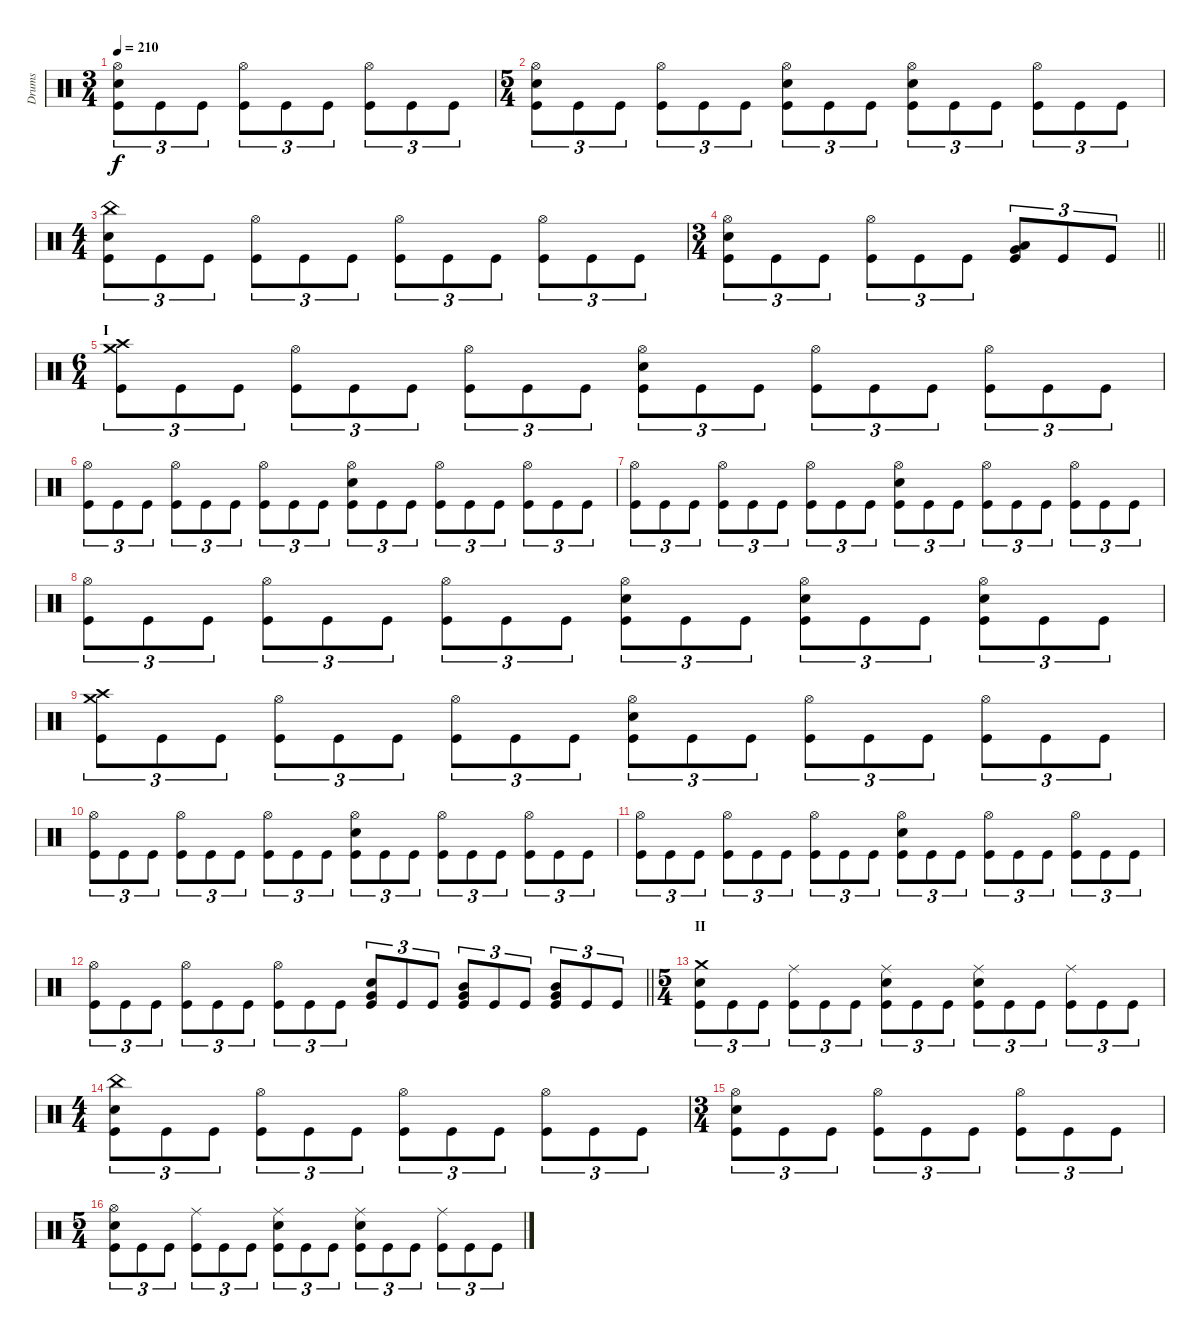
\track ("Drums" "Drums") {instrument percussion}
\staff {score}
\articulation defaults
\ts (3 4)
\tempo 210
\clef neutral
\ks c
("Kick (hit)" "Electric Snare (hit)" "Hi-Hat (open)").8{tu (3 2) dy f} "Kick (hit)".8{tu (3 2)} "Kick (hit)".8{tu (3 2)} ("Kick (hit)" "Hi-Hat (open)").8{tu (3 2)} "Kick (hit)".8{tu (3 2)} "Kick (hit)".8{tu (3 2)} ("Kick (hit)" "Hi-Hat (open)").8{tu (3 2)} "Kick (hit)".8{tu (3 2)} "Kick (hit)".8{tu (3 2)} |
\ts (5 4)
("Kick (hit)" "Electric Snare (hit)" "Hi-Hat (open)").8{tu (3 2)} "Kick (hit)".8{tu (3 2)} "Kick (hit)".8{tu (3 2)} ("Kick (hit)" "Hi-Hat (open)").8{tu (3 2)} "Kick (hit)".8{tu (3 2)} "Kick (hit)".8{tu (3 2)} ("Kick (hit)" "Electric Snare (hit)" "Hi-Hat (open)").8{tu (3 2)} "Kick (hit)".8{tu (3 2)} "Kick (hit)".8{tu (3 2)} ("Kick (hit)" "Electric Snare (hit)" "Hi-Hat (open)").8{tu (3 2)} "Kick (hit)".8{tu (3 2)} "Kick (hit)".8{tu (3 2)} ("Kick (hit)" "Hi-Hat (open)").8{tu (3 2)} "Kick (hit)".8{tu (3 2)} "Kick (hit)".8{tu (3 2)} |
\ts (4 4)
("Kick (hit)" "Electric Snare (hit)" "China (hit)").8{tu (3 2)} "Kick (hit)".8{tu (3 2)} "Kick (hit)".8{tu (3 2)} ("Kick (hit)" "Hi-Hat (open)").8{tu (3 2)} "Kick (hit)".8{tu (3 2)} "Kick (hit)".8{tu (3 2)} ("Kick (hit)" "Hi-Hat (open)").8{tu (3 2)} "Kick (hit)".8{tu (3 2)} "Kick (hit)".8{tu (3 2)} ("Kick (hit)" "Hi-Hat (open)").8{tu (3 2)} "Kick (hit)".8{tu (3 2)} "Kick (hit)".8{tu (3 2)} |
\ts (3 4)
\barLineRight lightlight
("Kick (hit)" "Electric Snare (hit)" "Hi-Hat (open)").8{tu (3 2)} "Kick (hit)".8{tu (3 2)} "Kick (hit)".8{tu (3 2)} ("Kick (hit)" "Hi-Hat (open)").8{tu (3 2)} "Kick (hit)".8{tu (3 2)} "Kick (hit)".8{tu (3 2)} ("Kick (hit)" "Very Low Tom (hit)" "Low Tom (hit)").8{tu (3 2)} "Kick (hit)".8{tu (3 2)} "Kick (hit)".8{tu (3 2)} |
\ts (6 4)
\section ("" "I")
("Kick (hit)" "Crash high (hit)" "Crash medium (hit)").8{tu (3 2)} "Kick (hit)".8{tu (3 2)} "Kick (hit)".8{tu (3 2)} ("Kick (hit)" "Hi-Hat (open)").8{tu (3 2)} "Kick (hit)".8{tu (3 2)} "Kick (hit)".8{tu (3 2)} ("Kick (hit)" "Hi-Hat (open)").8{tu (3 2)} "Kick (hit)".8{tu (3 2)} "Kick (hit)".8{tu (3 2)} ("Kick (hit)" "Electric Snare (hit)" "Hi-Hat (open)").8{tu (3 2)} "Kick (hit)".8{tu (3 2)} "Kick (hit)".8{tu (3 2)} ("Kick (hit)" "Hi-Hat (open)").8{tu (3 2)} "Kick (hit)".8{tu (3 2)} "Kick (hit)".8{tu (3 2)} ("Kick (hit)" "Hi-Hat (open)").8{tu (3 2)} "Kick (hit)".8{tu (3 2)} "Kick (hit)".8{tu (3 2)} |
("Kick (hit)" "Hi-Hat (open)").8{tu (3 2)} "Kick (hit)".8{tu (3 2)} "Kick (hit)".8{tu (3 2)} ("Kick (hit)" "Hi-Hat (open)").8{tu (3 2)} "Kick (hit)".8{tu (3 2)} "Kick (hit)".8{tu (3 2)} ("Kick (hit)" "Hi-Hat (open)").8{tu (3 2)} "Kick (hit)".8{tu (3 2)} "Kick (hit)".8{tu (3 2)} ("Kick (hit)" "Electric Snare (hit)" "Hi-Hat (open)").8{tu (3 2)} "Kick (hit)".8{tu (3 2)} "Kick (hit)".8{tu (3 2)} ("Kick (hit)" "Hi-Hat (open)").8{tu (3 2)} "Kick (hit)".8{tu (3 2)} "Kick (hit)".8{tu (3 2)} ("Kick (hit)" "Hi-Hat (open)").8{tu (3 2)} "Kick (hit)".8{tu (3 2)} "Kick (hit)".8{tu (3 2)} |
("Kick (hit)" "Hi-Hat (open)").8{tu (3 2)} "Kick (hit)".8{tu (3 2)} "Kick (hit)".8{tu (3 2)} ("Kick (hit)" "Hi-Hat (open)").8{tu (3 2)} "Kick (hit)".8{tu (3 2)} "Kick (hit)".8{tu (3 2)} ("Kick (hit)" "Hi-Hat (open)").8{tu (3 2)} "Kick (hit)".8{tu (3 2)} "Kick (hit)".8{tu (3 2)} ("Kick (hit)" "Electric Snare (hit)" "Hi-Hat (open)").8{tu (3 2)} "Kick (hit)".8{tu (3 2)} "Kick (hit)".8{tu (3 2)} ("Kick (hit)" "Hi-Hat (open)").8{tu (3 2)} "Kick (hit)".8{tu (3 2)} "Kick (hit)".8{tu (3 2)} ("Kick (hit)" "Hi-Hat (open)").8{tu (3 2)} "Kick (hit)".8{tu (3 2)} "Kick (hit)".8{tu (3 2)} |
("Kick (hit)" "Hi-Hat (open)").8{tu (3 2)} "Kick (hit)".8{tu (3 2)} "Kick (hit)".8{tu (3 2)} ("Kick (hit)" "Hi-Hat (open)").8{tu (3 2)} "Kick (hit)".8{tu (3 2)} "Kick (hit)".8{tu (3 2)} ("Kick (hit)" "Hi-Hat (open)").8{tu (3 2)} "Kick (hit)".8{tu (3 2)} "Kick (hit)".8{tu (3 2)} ("Kick (hit)" "Electric Snare (hit)" "Hi-Hat (open)").8{tu (3 2)} "Kick (hit)".8{tu (3 2)} "Kick (hit)".8{tu (3 2)} ("Kick (hit)" "Electric Snare (hit)" "Hi-Hat (open)").8{tu (3 2)} "Kick (hit)".8{tu (3 2)} "Kick (hit)".8{tu (3 2)} ("Kick (hit)" "Electric Snare (hit)" "Hi-Hat (open)").8{tu (3 2)} "Kick (hit)".8{tu (3 2)} "Kick (hit)".8{tu (3 2)} |
("Kick (hit)" "Crash high (hit)" "Crash medium (hit)").8{tu (3 2)} "Kick (hit)".8{tu (3 2)} "Kick (hit)".8{tu (3 2)} ("Kick (hit)" "Hi-Hat (open)").8{tu (3 2)} "Kick (hit)".8{tu (3 2)} "Kick (hit)".8{tu (3 2)} ("Kick (hit)" "Hi-Hat (open)").8{tu (3 2)} "Kick (hit)".8{tu (3 2)} "Kick (hit)".8{tu (3 2)} ("Kick (hit)" "Electric Snare (hit)" "Hi-Hat (open)").8{tu (3 2)} "Kick (hit)".8{tu (3 2)} "Kick (hit)".8{tu (3 2)} ("Kick (hit)" "Hi-Hat (open)").8{tu (3 2)} "Kick (hit)".8{tu (3 2)} "Kick (hit)".8{tu (3 2)} ("Kick (hit)" "Hi-Hat (open)").8{tu (3 2)} "Kick (hit)".8{tu (3 2)} "Kick (hit)".8{tu (3 2)} |
("Kick (hit)" "Hi-Hat (open)").8{tu (3 2)} "Kick (hit)".8{tu (3 2)} "Kick (hit)".8{tu (3 2)} ("Kick (hit)" "Hi-Hat (open)").8{tu (3 2)} "Kick (hit)".8{tu (3 2)} "Kick (hit)".8{tu (3 2)} ("Kick (hit)" "Hi-Hat (open)").8{tu (3 2)} "Kick (hit)".8{tu (3 2)} "Kick (hit)".8{tu (3 2)} ("Kick (hit)" "Electric Snare (hit)" "Hi-Hat (open)").8{tu (3 2)} "Kick (hit)".8{tu (3 2)} "Kick (hit)".8{tu (3 2)} ("Kick (hit)" "Hi-Hat (open)").8{tu (3 2)} "Kick (hit)".8{tu (3 2)} "Kick (hit)".8{tu (3 2)} ("Kick (hit)" "Hi-Hat (open)").8{tu (3 2)} "Kick (hit)".8{tu (3 2)} "Kick (hit)".8{tu (3 2)} |
("Kick (hit)" "Hi-Hat (open)").8{tu (3 2)} "Kick (hit)".8{tu (3 2)} "Kick (hit)".8{tu (3 2)} ("Kick (hit)" "Hi-Hat (open)").8{tu (3 2)} "Kick (hit)".8{tu (3 2)} "Kick (hit)".8{tu (3 2)} ("Kick (hit)" "Hi-Hat (open)").8{tu (3 2)} "Kick (hit)".8{tu (3 2)} "Kick (hit)".8{tu (3 2)} ("Kick (hit)" "Electric Snare (hit)" "Hi-Hat (open)").8{tu (3 2)} "Kick (hit)".8{tu (3 2)} "Kick (hit)".8{tu (3 2)} ("Kick (hit)" "Hi-Hat (open)").8{tu (3 2)} "Kick (hit)".8{tu (3 2)} "Kick (hit)".8{tu (3 2)} ("Kick (hit)" "Hi-Hat (open)").8{tu (3 2)} "Kick (hit)".8{tu (3 2)} "Kick (hit)".8{tu (3 2)} |
\barLineRight lightlight
("Kick (hit)" "Hi-Hat (open)").8{tu (3 2)} "Kick (hit)".8{tu (3 2)} "Kick (hit)".8{tu (3 2)} ("Kick (hit)" "Hi-Hat (open)").8{tu (3 2)} "Kick (hit)".8{tu (3 2)} "Kick (hit)".8{tu (3 2)} ("Kick (hit)" "Hi-Hat (open)").8{tu (3 2)} "Kick (hit)".8{tu (3 2)} "Kick (hit)".8{tu (3 2)} ("Kick (hit)" "Electric Snare (hit)" "Very Low Tom (hit)").8{tu (3 2)} "Kick (hit)".8{tu (3 2)} "Kick (hit)".8{tu (3 2)} ("Kick (hit)" "Very Low Tom (hit)" "Mid Tom (hit)").8{tu (3 2)} "Kick (hit)".8{tu (3 2)} "Kick (hit)".8{tu (3 2)} ("Kick (hit)" "Very Low Tom (hit)" "Mid Tom (hit)").8{tu (3 2)} "Kick (hit)".8{tu (3 2)} "Kick (hit)".8{tu (3 2)} |
\ts (5 4)
\section ("" "II")
("Kick (hit)" "Electric Snare (hit)" "Crash medium (hit)").8{tu (3 2)} "Kick (hit)".8{tu (3 2)} "Kick (hit)".8{tu (3 2)} ("Kick (hit)" "Ride (middle)").8{tu (3 2)} "Kick (hit)".8{tu (3 2)} "Kick (hit)".8{tu (3 2)} ("Kick (hit)" "Electric Snare (hit)" "Ride (middle)").8{tu (3 2)} "Kick (hit)".8{tu (3 2)} "Kick (hit)".8{tu (3 2)} ("Kick (hit)" "Electric Snare (hit)" "Ride (middle)").8{tu (3 2)} "Kick (hit)".8{tu (3 2)} "Kick (hit)".8{tu (3 2)} ("Kick (hit)" "Ride (middle)").8{tu (3 2)} "Kick (hit)".8{tu (3 2)} "Kick (hit)".8{tu (3 2)} |
\ts (4 4)
("Kick (hit)" "Electric Snare (hit)" "China (hit)").8{tu (3 2)} "Kick (hit)".8{tu (3 2)} "Kick (hit)".8{tu (3 2)} ("Kick (hit)" "Hi-Hat (open)").8{tu (3 2)} "Kick (hit)".8{tu (3 2)} "Kick (hit)".8{tu (3 2)} ("Kick (hit)" "Hi-Hat (open)").8{tu (3 2)} "Kick (hit)".8{tu (3 2)} "Kick (hit)".8{tu (3 2)} ("Kick (hit)" "Hi-Hat (open)").8{tu (3 2)} "Kick (hit)".8{tu (3 2)} "Kick (hit)".8{tu (3 2)} |
\ts (3 4)
("Kick (hit)" "Electric Snare (hit)" "Hi-Hat (open)").8{tu (3 2)} "Kick (hit)".8{tu (3 2)} "Kick (hit)".8{tu (3 2)} ("Kick (hit)" "Hi-Hat (open)").8{tu (3 2)} "Kick (hit)".8{tu (3 2)} "Kick (hit)".8{tu (3 2)} ("Kick (hit)" "Hi-Hat (open)").8{tu (3 2)} "Kick (hit)".8{tu (3 2)} "Kick (hit)".8{tu (3 2)} |
\ts (5 4)
("Kick (hit)" "Electric Snare (hit)" "Hi-Hat (open)").8{tu (3 2)} "Kick (hit)".8{tu (3 2)} "Kick (hit)".8{tu (3 2)} ("Kick (hit)" "Ride (middle)").8{tu (3 2)} "Kick (hit)".8{tu (3 2)} "Kick (hit)".8{tu (3 2)} ("Kick (hit)" "Electric Snare (hit)" "Ride (middle)").8{tu (3 2)} "Kick (hit)".8{tu (3 2)} "Kick (hit)".8{tu (3 2)} ("Kick (hit)" "Electric Snare (hit)" "Ride (middle)").8{tu (3 2)} "Kick (hit)".8{tu (3 2)} "Kick (hit)".8{tu (3 2)} ("Kick (hit)" "Ride (middle)").8{tu (3 2)} "Kick (hit)".8{tu (3 2)} "Kick (hit)".8{tu (3 2)}
